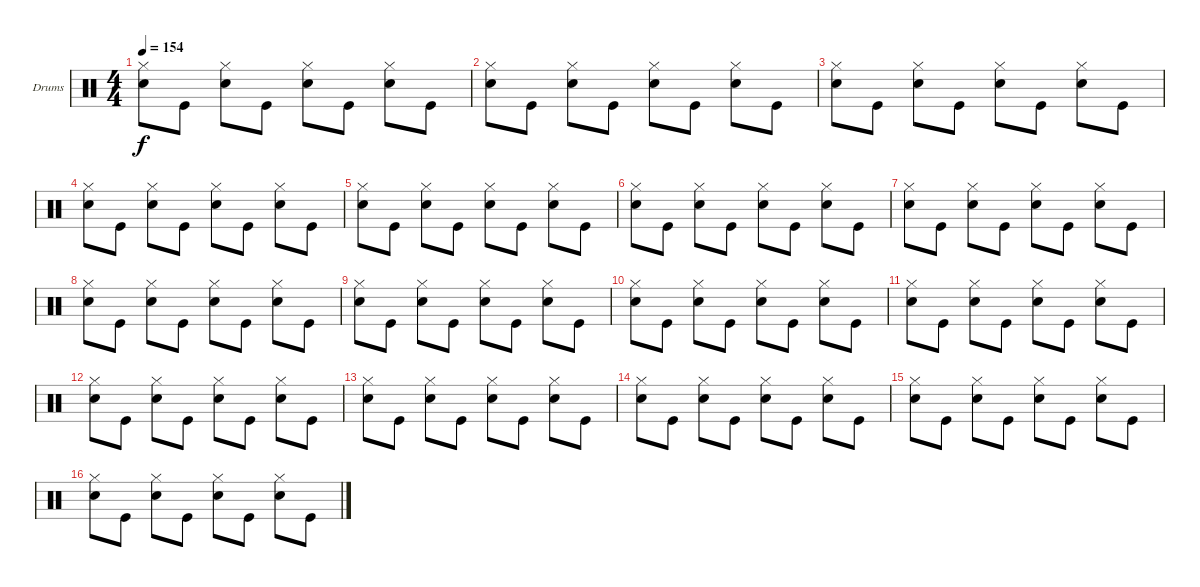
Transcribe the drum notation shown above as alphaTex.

\defaultSystemsLayout 4
\bracketExtendMode groupsimilarinstruments
\firstSystemTrackNameOrientation horizontal
\otherSystemsTrackNameOrientation horizontal
\track ("Drumkit" "Drums") {instrument percussion}
\staff {score}
\articulation defaults
\ts (4 4)
\tempo 154
\clef neutral
\ks c
("Hi-Hat (closed)" "Snare (hit) 2").8{dy f} "Kick (hit)".8 ("Hi-Hat (closed)" "Snare (hit) 2").8 "Kick (hit)".8 ("Hi-Hat (closed)" "Snare (hit) 2").8 "Kick (hit)".8 ("Hi-Hat (closed)" "Snare (hit) 2").8 "Kick (hit)".8 |
("Hi-Hat (closed)" "Snare (hit) 2").8 "Kick (hit)".8 ("Hi-Hat (closed)" "Snare (hit) 2").8 "Kick (hit)".8 ("Hi-Hat (closed)" "Snare (hit) 2").8 "Kick (hit)".8 ("Hi-Hat (closed)" "Snare (hit) 2").8 "Kick (hit)".8 |
("Hi-Hat (closed)" "Snare (hit) 2").8 "Kick (hit)".8 ("Hi-Hat (closed)" "Snare (hit) 2").8 "Kick (hit)".8 ("Hi-Hat (closed)" "Snare (hit) 2").8 "Kick (hit)".8 ("Hi-Hat (closed)" "Snare (hit) 2").8 "Kick (hit)".8 |
("Hi-Hat (closed)" "Snare (hit) 2").8 "Kick (hit)".8 ("Hi-Hat (closed)" "Snare (hit) 2").8 "Kick (hit)".8 ("Hi-Hat (closed)" "Snare (hit) 2").8 "Kick (hit)".8 ("Hi-Hat (closed)" "Snare (hit) 2").8 "Kick (hit)".8 |
("Hi-Hat (closed)" "Snare (hit) 2").8 "Kick (hit)".8 ("Hi-Hat (closed)" "Snare (hit) 2").8 "Kick (hit)".8 ("Hi-Hat (closed)" "Snare (hit) 2").8 "Kick (hit)".8 ("Hi-Hat (closed)" "Snare (hit) 2").8 "Kick (hit)".8 |
("Hi-Hat (closed)" "Snare (hit) 2").8 "Kick (hit)".8 ("Hi-Hat (closed)" "Snare (hit) 2").8 "Kick (hit)".8 ("Hi-Hat (closed)" "Snare (hit) 2").8 "Kick (hit)".8 ("Hi-Hat (closed)" "Snare (hit) 2").8 "Kick (hit)".8 |
("Hi-Hat (closed)" "Snare (hit) 2").8 "Kick (hit)".8 ("Hi-Hat (closed)" "Snare (hit) 2").8 "Kick (hit)".8 ("Hi-Hat (closed)" "Snare (hit) 2").8 "Kick (hit)".8 ("Hi-Hat (closed)" "Snare (hit) 2").8 "Kick (hit)".8 |
("Hi-Hat (closed)" "Snare (hit) 2").8 "Kick (hit)".8 ("Hi-Hat (closed)" "Snare (hit) 2").8 "Kick (hit)".8 ("Hi-Hat (closed)" "Snare (hit) 2").8 "Kick (hit)".8 ("Hi-Hat (closed)" "Snare (hit) 2").8 "Kick (hit)".8 |
("Hi-Hat (closed)" "Snare (hit) 2").8 "Kick (hit)".8 ("Hi-Hat (closed)" "Snare (hit) 2").8 "Kick (hit)".8 ("Hi-Hat (closed)" "Snare (hit) 2").8 "Kick (hit)".8 ("Hi-Hat (closed)" "Snare (hit) 2").8 "Kick (hit)".8 |
("Hi-Hat (closed)" "Snare (hit) 2").8 "Kick (hit)".8 ("Hi-Hat (closed)" "Snare (hit) 2").8 "Kick (hit)".8 ("Hi-Hat (closed)" "Snare (hit) 2").8 "Kick (hit)".8 ("Hi-Hat (closed)" "Snare (hit) 2").8 "Kick (hit)".8 |
("Hi-Hat (closed)" "Snare (hit) 2").8 "Kick (hit)".8 ("Hi-Hat (closed)" "Snare (hit) 2").8 "Kick (hit)".8 ("Hi-Hat (closed)" "Snare (hit) 2").8 "Kick (hit)".8 ("Hi-Hat (closed)" "Snare (hit) 2").8 "Kick (hit)".8 |
("Hi-Hat (closed)" "Snare (hit) 2").8 "Kick (hit)".8 ("Hi-Hat (closed)" "Snare (hit) 2").8 "Kick (hit)".8 ("Hi-Hat (closed)" "Snare (hit) 2").8 "Kick (hit)".8 ("Hi-Hat (closed)" "Snare (hit) 2").8 "Kick (hit)".8 |
("Hi-Hat (closed)" "Snare (hit) 2").8 "Kick (hit)".8 ("Hi-Hat (closed)" "Snare (hit) 2").8 "Kick (hit)".8 ("Hi-Hat (closed)" "Snare (hit) 2").8 "Kick (hit)".8 ("Hi-Hat (closed)" "Snare (hit) 2").8 "Kick (hit)".8 |
("Hi-Hat (closed)" "Snare (hit) 2").8 "Kick (hit)".8 ("Hi-Hat (closed)" "Snare (hit) 2").8 "Kick (hit)".8 ("Hi-Hat (closed)" "Snare (hit) 2").8 "Kick (hit)".8 ("Hi-Hat (closed)" "Snare (hit) 2").8 "Kick (hit)".8 |
("Hi-Hat (closed)" "Snare (hit) 2").8 "Kick (hit)".8 ("Hi-Hat (closed)" "Snare (hit) 2").8 "Kick (hit)".8 ("Hi-Hat (closed)" "Snare (hit) 2").8 "Kick (hit)".8 ("Hi-Hat (closed)" "Snare (hit) 2").8 "Kick (hit)".8 |
("Hi-Hat (closed)" "Snare (hit) 2").8 "Kick (hit)".8 ("Hi-Hat (closed)" "Snare (hit) 2").8 "Kick (hit)".8 ("Hi-Hat (closed)" "Snare (hit) 2").8 "Kick (hit)".8 ("Hi-Hat (closed)" "Snare (hit) 2").8 "Kick (hit)".8
